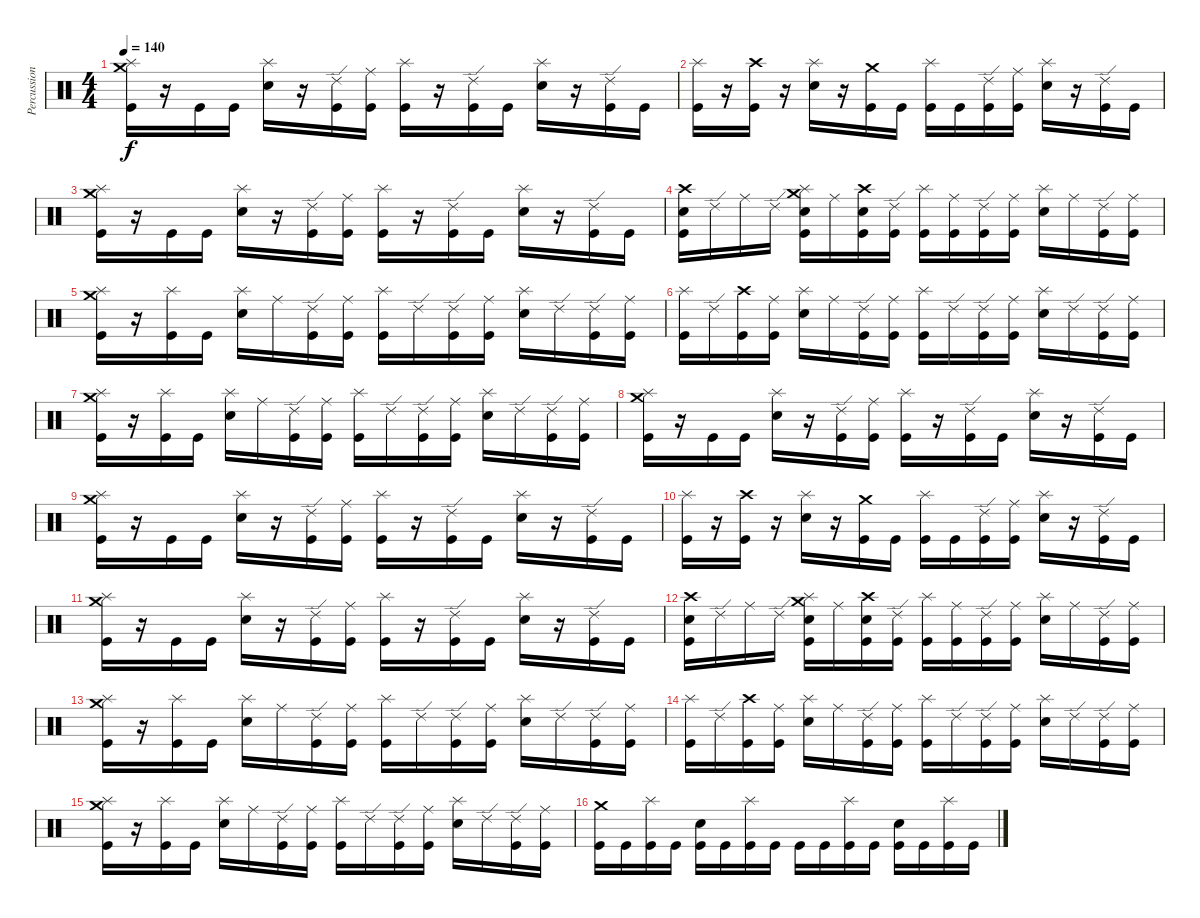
\track ("Percussion" "Percussion") {instrument percussion}
\staff {score}
\articulation defaults
\ts (4 4)
\tempo 140
\clef neutral
\ks c
("Crash medium (hit)" "Splash (hit)" "Kick (hit)").16{dy f} r.16 "Kick (hit)".16 "Kick (hit)".16 ("Electric Snare (hit)" "Splash (hit)").16 r.16 ("Ride (edge) 2" "Kick (hit)").16 ("Ride (middle)" "Kick (hit)").16 ("Splash (hit)" "Kick (hit)").16 r.16 ("Ride (edge) 2" "Kick (hit)").16 "Kick (hit)".16 ("Electric Snare (hit)" "Splash (hit)").16 r.16 ("Ride (edge) 2" "Kick (hit)").16 "Kick (hit)".16 |
("Splash (hit)" "Kick (hit)").16 r.16 ("Crash high (hit)" "Kick (hit)").16 r.16 ("Electric Snare (hit)" "Splash (hit)").16 r.16 ("Crash medium (hit)" "Kick (hit)").16 "Kick (hit)".16 ("Splash (hit)" "Kick (hit)").16 "Kick (hit)".16 ("Ride (edge) 2" "Kick (hit)").16 ("Ride (middle)" "Kick (hit)").16 ("Electric Snare (hit)" "Splash (hit)").16 r.16 ("Ride (edge) 2" "Kick (hit)").16 "Kick (hit)".16 |
("Crash medium (hit)" "Splash (hit)" "Kick (hit)").16 r.16 "Kick (hit)".16 "Kick (hit)".16 ("Electric Snare (hit)" "Splash (hit)").16 r.16 ("Ride (edge) 2" "Kick (hit)").16 ("Ride (middle)" "Kick (hit)").16 ("Splash (hit)" "Kick (hit)").16 r.16 ("Ride (edge) 2" "Kick (hit)").16 "Kick (hit)".16 ("Electric Snare (hit)" "Splash (hit)").16 r.16 ("Ride (edge) 2" "Kick (hit)").16 "Kick (hit)".16 |
("Crash high (hit)" "Electric Snare (hit)" "Kick (hit)").16 "Ride (edge) 2".16 "Ride (middle)".16 "Ride (edge) 2".16 ("Crash medium (hit)" "Electric Snare (hit)" "Splash (hit)" "Kick (hit)").16 "Ride (middle)".16 ("Crash high (hit)" "Electric Snare (hit)" "Kick (hit)").16 ("Ride (edge) 2" "Kick (hit)").16 ("Splash (hit)" "Kick (hit)").16 ("Ride (middle)" "Kick (hit)").16 ("Ride (edge) 2" "Kick (hit)").16 ("Ride (middle)" "Kick (hit)").16 ("Electric Snare (hit)" "Splash (hit)").16 "Ride (middle)".16 ("Ride (edge) 2" "Kick (hit)").16 ("Ride (middle)" "Kick (hit)").16 |
("Crash medium (hit)" "Splash (hit)" "Kick (hit)").16 r.16 ("Splash (hit)" "Kick (hit)").16 "Kick (hit)".16 ("Electric Snare (hit)" "Splash (hit)").16 "Ride (middle)".16 ("Ride (edge) 2" "Kick (hit)").16 ("Ride (middle)" "Kick (hit)").16 ("Splash (hit)" "Kick (hit)").16 "Ride (edge) 2".16 ("Ride (edge) 2" "Kick (hit)").16 ("Ride (middle)" "Kick (hit)").16 ("Electric Snare (hit)" "Splash (hit)").16 "Ride (edge) 2".16 ("Ride (edge) 2" "Kick (hit)").16 ("Ride (middle)" "Kick (hit)").16 |
("Splash (hit)" "Kick (hit)").16 "Ride (edge) 2".16 ("Crash high (hit)" "Kick (hit)").16 ("Ride (middle)" "Kick (hit)").16 ("Electric Snare (hit)" "Splash (hit)").16 "Ride (middle)".16 ("Ride (edge) 2" "Kick (hit)").16 ("Ride (middle)" "Kick (hit)").16 ("Splash (hit)" "Kick (hit)").16 "Ride (edge) 2".16 ("Ride (edge) 2" "Kick (hit)").16 ("Ride (middle)" "Kick (hit)").16 ("Electric Snare (hit)" "Splash (hit)").16 "Ride (edge) 2".16 ("Ride (edge) 2" "Kick (hit)").16 ("Ride (middle)" "Kick (hit)").16 |
("Crash medium (hit)" "Splash (hit)" "Kick (hit)").16 r.16 ("Splash (hit)" "Kick (hit)").16 "Kick (hit)".16 ("Electric Snare (hit)" "Splash (hit)").16 "Ride (middle)".16 ("Ride (edge) 2" "Kick (hit)").16 ("Ride (middle)" "Kick (hit)").16 ("Splash (hit)" "Kick (hit)").16 "Ride (edge) 2".16 ("Ride (edge) 2" "Kick (hit)").16 ("Ride (middle)" "Kick (hit)").16 ("Electric Snare (hit)" "Splash (hit)").16 "Ride (edge) 2".16 ("Ride (edge) 2" "Kick (hit)").16 ("Ride (middle)" "Kick (hit)").16 |
("Crash medium (hit)" "Splash (hit)" "Kick (hit)").16 r.16 "Kick (hit)".16 "Kick (hit)".16 ("Electric Snare (hit)" "Splash (hit)").16 r.16 ("Ride (edge) 2" "Kick (hit)").16 ("Ride (middle)" "Kick (hit)").16 ("Splash (hit)" "Kick (hit)").16 r.16 ("Ride (edge) 2" "Kick (hit)").16 "Kick (hit)".16 ("Electric Snare (hit)" "Splash (hit)").16 r.16 ("Ride (edge) 2" "Kick (hit)").16 "Kick (hit)".16 |
("Crash medium (hit)" "Splash (hit)" "Kick (hit)").16 r.16 "Kick (hit)".16 "Kick (hit)".16 ("Electric Snare (hit)" "Splash (hit)").16 r.16 ("Ride (edge) 2" "Kick (hit)").16 ("Ride (middle)" "Kick (hit)").16 ("Splash (hit)" "Kick (hit)").16 r.16 ("Ride (edge) 2" "Kick (hit)").16 "Kick (hit)".16 ("Electric Snare (hit)" "Splash (hit)").16 r.16 ("Ride (edge) 2" "Kick (hit)").16 "Kick (hit)".16 |
("Splash (hit)" "Kick (hit)").16 r.16 ("Crash high (hit)" "Kick (hit)").16 r.16 ("Electric Snare (hit)" "Splash (hit)").16 r.16 ("Crash medium (hit)" "Kick (hit)").16 "Kick (hit)".16 ("Splash (hit)" "Kick (hit)").16 "Kick (hit)".16 ("Ride (edge) 2" "Kick (hit)").16 ("Ride (middle)" "Kick (hit)").16 ("Electric Snare (hit)" "Splash (hit)").16 r.16 ("Ride (edge) 2" "Kick (hit)").16 "Kick (hit)".16 |
("Crash medium (hit)" "Splash (hit)" "Kick (hit)").16 r.16 "Kick (hit)".16 "Kick (hit)".16 ("Electric Snare (hit)" "Splash (hit)").16 r.16 ("Ride (edge) 2" "Kick (hit)").16 ("Ride (middle)" "Kick (hit)").16 ("Splash (hit)" "Kick (hit)").16 r.16 ("Ride (edge) 2" "Kick (hit)").16 "Kick (hit)".16 ("Electric Snare (hit)" "Splash (hit)").16 r.16 ("Ride (edge) 2" "Kick (hit)").16 "Kick (hit)".16 |
("Crash high (hit)" "Electric Snare (hit)" "Kick (hit)").16 "Ride (edge) 2".16 "Ride (middle)".16 "Ride (edge) 2".16 ("Crash medium (hit)" "Electric Snare (hit)" "Splash (hit)" "Kick (hit)").16 "Ride (middle)".16 ("Crash high (hit)" "Electric Snare (hit)" "Kick (hit)").16 ("Ride (edge) 2" "Kick (hit)").16 ("Splash (hit)" "Kick (hit)").16 ("Ride (middle)" "Kick (hit)").16 ("Ride (edge) 2" "Kick (hit)").16 ("Ride (middle)" "Kick (hit)").16 ("Electric Snare (hit)" "Splash (hit)").16 "Ride (middle)".16 ("Ride (edge) 2" "Kick (hit)").16 ("Ride (middle)" "Kick (hit)").16 |
("Crash medium (hit)" "Splash (hit)" "Kick (hit)").16 r.16 ("Splash (hit)" "Kick (hit)").16 "Kick (hit)".16 ("Electric Snare (hit)" "Splash (hit)").16 "Ride (middle)".16 ("Ride (edge) 2" "Kick (hit)").16 ("Ride (middle)" "Kick (hit)").16 ("Splash (hit)" "Kick (hit)").16 "Ride (edge) 2".16 ("Ride (edge) 2" "Kick (hit)").16 ("Ride (middle)" "Kick (hit)").16 ("Electric Snare (hit)" "Splash (hit)").16 "Ride (edge) 2".16 ("Ride (edge) 2" "Kick (hit)").16 ("Ride (middle)" "Kick (hit)").16 |
("Splash (hit)" "Kick (hit)").16 "Ride (edge) 2".16 ("Crash high (hit)" "Kick (hit)").16 ("Ride (middle)" "Kick (hit)").16 ("Electric Snare (hit)" "Splash (hit)").16 "Ride (middle)".16 ("Ride (edge) 2" "Kick (hit)").16 ("Ride (middle)" "Kick (hit)").16 ("Splash (hit)" "Kick (hit)").16 "Ride (edge) 2".16 ("Ride (edge) 2" "Kick (hit)").16 ("Ride (middle)" "Kick (hit)").16 ("Electric Snare (hit)" "Splash (hit)").16 "Ride (edge) 2".16 ("Ride (edge) 2" "Kick (hit)").16 ("Ride (middle)" "Kick (hit)").16 |
("Crash medium (hit)" "Splash (hit)" "Kick (hit)").16 r.16 ("Splash (hit)" "Kick (hit)").16 "Kick (hit)".16 ("Electric Snare (hit)" "Splash (hit)").16 "Ride (middle)".16 ("Ride (edge) 2" "Kick (hit)").16 ("Ride (middle)" "Kick (hit)").16 ("Splash (hit)" "Kick (hit)").16 "Ride (edge) 2".16 ("Ride (edge) 2" "Kick (hit)").16 ("Ride (middle)" "Kick (hit)").16 ("Electric Snare (hit)" "Splash (hit)").16 "Ride (edge) 2".16 ("Ride (edge) 2" "Kick (hit)").16 ("Ride (middle)" "Kick (hit)").16 |
("Crash medium (hit)" "Kick (hit)").16 "Kick (hit)".16 ("Splash (hit)" "Kick (hit)").16 "Kick (hit)".16 ("Electric Snare (hit)" "Kick (hit)").16 "Kick (hit)".16 ("Splash (hit)" "Kick (hit)").16 "Kick (hit)".16 "Kick (hit)".16 "Kick (hit)".16 ("Splash (hit)" "Kick (hit)").16 "Kick (hit)".16 ("Electric Snare (hit)" "Kick (hit)").16 "Kick (hit)".16 ("Splash (hit)" "Kick (hit)").16 "Kick (hit)".16
